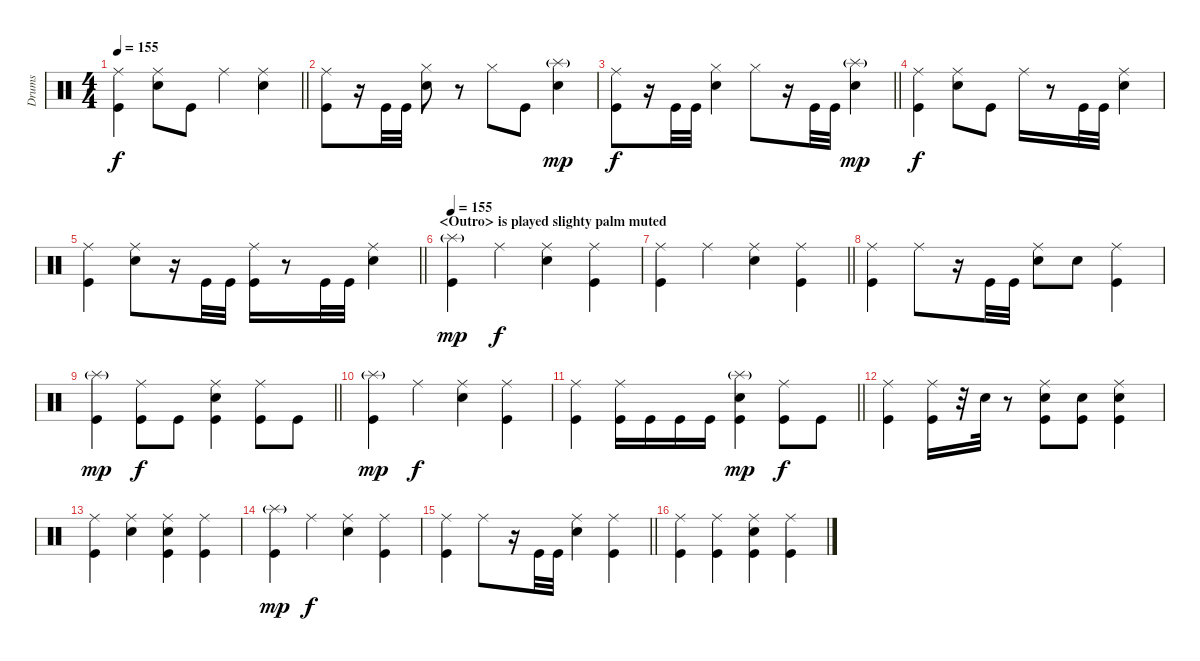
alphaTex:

\track ("Drums" "Drums") {instrument percussion}
\staff {score}
\articulation defaults
\ts (4 4)
\tempo 155
\clef neutral
\barLineRight lightlight
\ks c
("Ride (middle)" "Kick (hit)").4{dy f} ("Ride (middle)" "Snare (hit) 2").8 "Kick (hit)".8 "Ride (middle)".4 ("Ride (middle)" "Snare (hit) 2").4 |
("Ride (middle)" "Kick (hit)").8 r.16 "Kick (hit)".32 "Kick (hit)".32 ("Hi-Hat (closed)" "Snare (hit) 2").8 r.8 "Hi-Hat (closed)".8 "Kick (hit)".8 ("Splash (hit)"{g} "Snare (hit) 2").4{dy mp} |
\barLineRight lightlight
("Ride (middle)" "Kick (hit)").8{dy f} r.16 "Kick (hit)".32 "Kick (hit)".32 ("Hi-Hat (closed)" "Snare (hit) 2").4 "Hi-Hat (closed)".8 r.16 "Kick (hit)".32 "Kick (hit)".32 ("Splash (hit)"{g} "Snare (hit) 2").4{dy mp} |
("Ride (middle)" "Kick (hit)").4{dy f} ("Ride (middle)" "Snare (hit) 2").8 "Kick (hit)".8 "Ride (middle)".16 r.8 "Kick (hit)".32 "Kick (hit)".32 ("Ride (middle)" "Snare (hit) 2").4 |
\barLineRight lightlight
("Ride (middle)" "Kick (hit)").4 ("Ride (middle)" "Snare (hit) 2").8 r.16 "Kick (hit)".32 "Kick (hit)".32 ("Ride (middle)" "Kick (hit)").16 r.8 "Kick (hit)".32 "Kick (hit)".32 ("Ride (middle)" "Snare (hit) 2").4 |
\section ("" "<Outro> is played slighty palm muted")
\tempo 155
("Splash (hit)"{g} "Kick (hit)").4{dy mp} "Ride (middle)".4{dy f} ("Ride (middle)" "Snare (hit) 2").4 ("Ride (middle)" "Kick (hit)").4 |
\barLineRight lightlight
("Ride (middle)" "Kick (hit)").4 "Ride (middle)".4 ("Ride (middle)" "Snare (hit) 2").4 ("Ride (middle)" "Kick (hit)").4 |
("Ride (middle)" "Kick (hit)").4 "Ride (middle)".8 r.16 "Kick (hit)".32 "Kick (hit)".32 ("Ride (middle)" "Snare (hit) 2").8 "Snare (hit) 2".8 ("Ride (middle)" "Kick (hit)").4 |
\barLineRight lightlight
("Splash (hit)"{g} "Kick (hit)").4{dy mp} ("Ride (middle)" "Kick (hit)").8{dy f} "Kick (hit)".8 ("Ride (middle)" "Snare (hit) 2" "Kick (hit)").4 ("Ride (middle)" "Kick (hit)").8 "Kick (hit)".8 |
("Splash (hit)"{g} "Kick (hit)").4{dy mp} "Ride (middle)".4{dy f} ("Ride (middle)" "Snare (hit) 2").4 ("Ride (middle)" "Kick (hit)").4 |
\barLineRight lightlight
("Ride (middle)" "Kick (hit)").4 ("Ride (middle)" "Kick (hit)").16 "Kick (hit)".16 "Kick (hit)".16 "Kick (hit)".16 ("Splash (hit)"{g} "Snare (hit) 2" "Kick (hit)").4{dy mp} ("Ride (middle)" "Kick (hit)").8{dy f} "Kick (hit)".8 |
("Ride (middle)" "Kick (hit)").4 ("Ride (middle)" "Kick (hit)").16 r.32 "Snare (hit) 2".32 r.8 ("Ride (middle)" "Snare (hit) 2" "Kick (hit)").8 ("Snare (hit) 2" "Kick (hit)").8 ("Ride (middle)" "Snare (hit) 2" "Kick (hit)").4 |
("Ride (middle)" "Kick (hit)").4 ("Ride (middle)" "Snare (hit) 2").4 ("Ride (middle)" "Snare (hit) 2" "Kick (hit)").4 ("Ride (middle)" "Kick (hit)").4 |
("Splash (hit)"{g} "Kick (hit)").4{dy mp} "Ride (middle)".4{dy f} ("Ride (middle)" "Snare (hit) 2").4 ("Ride (middle)" "Kick (hit)").4 |
\barLineRight lightlight
("Ride (middle)" "Kick (hit)").4 "Ride (middle)".8 r.16 "Kick (hit)".32 "Kick (hit)".32 ("Ride (middle)" "Snare (hit) 2").4 ("Ride (middle)" "Kick (hit)").4 |
("Ride (middle)" "Kick (hit)").4 ("Ride (middle)" "Kick (hit)").4 ("Ride (middle)" "Snare (hit) 2" "Kick (hit)").4 ("Ride (middle)" "Kick (hit)").4
